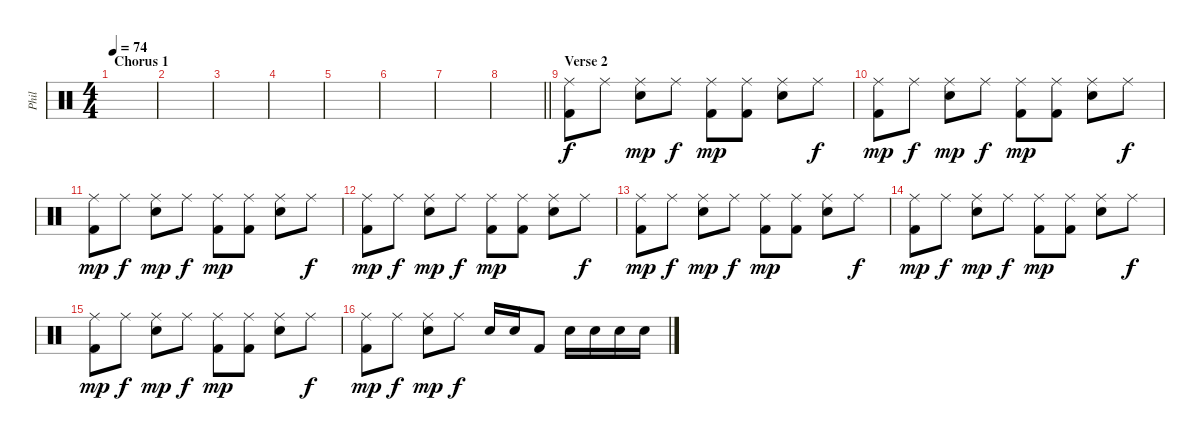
\track ("Phil" "Phil") {instrument percussion}
\staff {score}
\articulation defaults
\ts (4 4)
\section ("" "Chorus 1")
\tempo 74
\clef neutral
\ks c
|
|
|
|
|
|
|
\barLineRight lightlight
|
\section ("" "Verse 2")
("Ride (middle)" "Kick (hit) 2").8 "Ride (middle)".8{dy f} ("Ride (middle)" "Snare (hit) 2").8{dy mp} "Ride (middle)".8{dy f} ("Ride (middle)" "Kick (hit) 2").8{dy mp} ("Ride (middle)" "Kick (hit) 2").8 ("Ride (middle)" "Snare (hit) 2").8 "Ride (middle)".8{dy f} |
("Ride (middle)" "Kick (hit) 2").8{dy mp} "Ride (middle)".8{dy f} ("Ride (middle)" "Snare (hit) 2").8{dy mp} "Ride (middle)".8{dy f} ("Ride (middle)" "Kick (hit) 2").8{dy mp} ("Ride (middle)" "Kick (hit) 2").8 ("Ride (middle)" "Snare (hit) 2").8 "Ride (middle)".8{dy f} |
("Ride (middle)" "Kick (hit) 2").8{dy mp} "Ride (middle)".8{dy f} ("Ride (middle)" "Snare (hit) 2").8{dy mp} "Ride (middle)".8{dy f} ("Ride (middle)" "Kick (hit) 2").8{dy mp} ("Ride (middle)" "Kick (hit) 2").8 ("Ride (middle)" "Snare (hit) 2").8 "Ride (middle)".8{dy f} |
("Ride (middle)" "Kick (hit) 2").8{dy mp} "Ride (middle)".8{dy f} ("Ride (middle)" "Snare (hit) 2").8{dy mp} "Ride (middle)".8{dy f} ("Ride (middle)" "Kick (hit) 2").8{dy mp} ("Ride (middle)" "Kick (hit) 2").8 ("Ride (middle)" "Snare (hit) 2").8 "Ride (middle)".8{dy f} |
("Ride (middle)" "Kick (hit) 2").8{dy mp} "Ride (middle)".8{dy f} ("Ride (middle)" "Snare (hit) 2").8{dy mp} "Ride (middle)".8{dy f} ("Ride (middle)" "Kick (hit) 2").8{dy mp} ("Ride (middle)" "Kick (hit) 2").8 ("Ride (middle)" "Snare (hit) 2").8 "Ride (middle)".8{dy f} |
("Ride (middle)" "Kick (hit) 2").8{dy mp} "Ride (middle)".8{dy f} ("Ride (middle)" "Snare (hit) 2").8{dy mp} "Ride (middle)".8{dy f} ("Ride (middle)" "Kick (hit) 2").8{dy mp} ("Ride (middle)" "Kick (hit) 2").8 ("Ride (middle)" "Snare (hit) 2").8 "Ride (middle)".8{dy f} |
("Ride (middle)" "Kick (hit) 2").8{dy mp} "Ride (middle)".8{dy f} ("Ride (middle)" "Snare (hit) 2").8{dy mp} "Ride (middle)".8{dy f} ("Ride (middle)" "Kick (hit) 2").8{dy mp} ("Ride (middle)" "Kick (hit) 2").8 ("Ride (middle)" "Snare (hit) 2").8 "Ride (middle)".8{dy f} |
("Ride (middle)" "Kick (hit) 2").8{dy mp} "Ride (middle)".8{dy f} ("Ride (middle)" "Snare (hit) 2").8{dy mp} "Ride (middle)".8{dy f} "Snare (hit) 2".16 "Snare (hit) 2".16 "Kick (hit) 2".8 "Snare (hit) 2".16 "Snare (hit) 2".16 "Snare (hit) 2".16 "Snare (hit) 2".16
